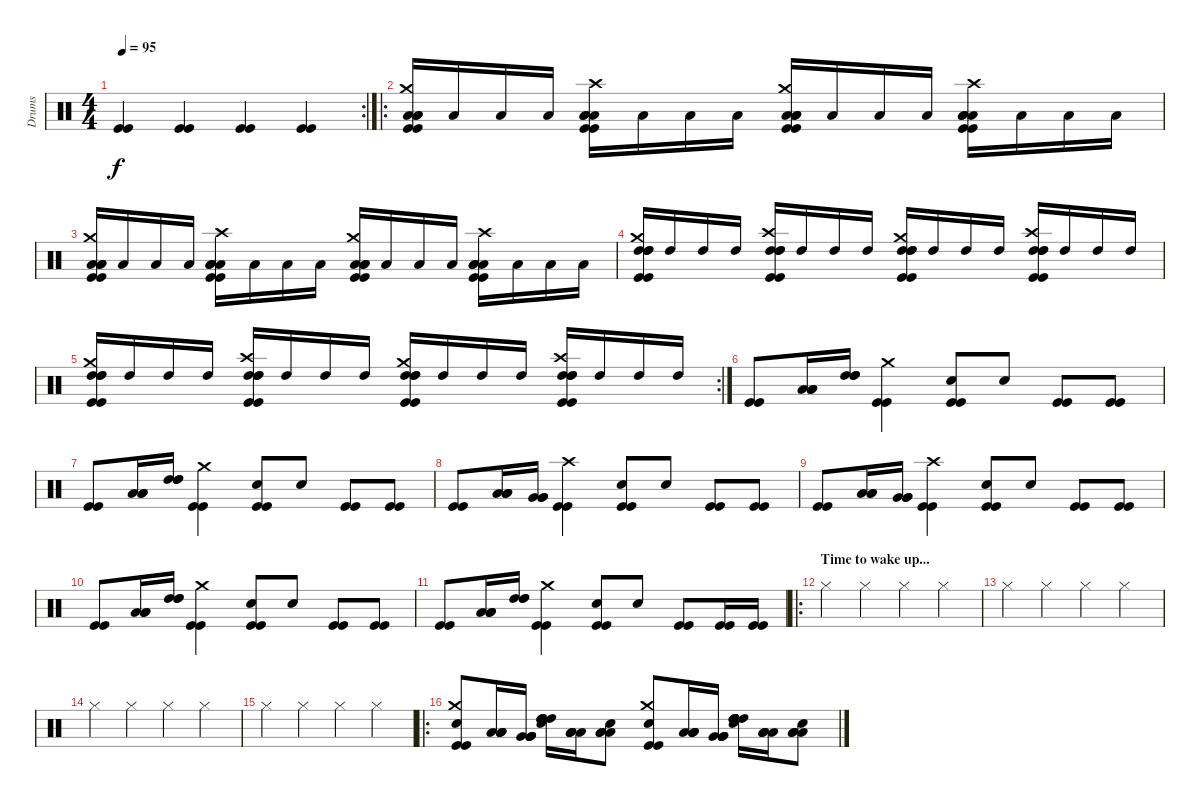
\track ("Drums" "Drums") {instrument percussion}
\staff {score}
\articulation defaults
\rc 2
\ts (4 4)
\tempo 95
\clef neutral
\ks c
("Kick (hit)" "Kick (hit)").4{dy f} ("Kick (hit)" "Kick (hit)").4 ("Kick (hit)" "Kick (hit)").4 ("Kick (hit)" "Kick (hit)").4 |
\ro
("Crash medium (hit)" "Low Tom (hit)" "Low Tom (hit)" "Low Tom (hit)" "Kick (hit)" "Kick (hit)").16 "Low Tom (hit)".16 "Low Tom (hit)".16 "Low Tom (hit)".16 ("Crash high (hit)" "Low Tom (hit)" "Low Tom (hit)" "Low Tom (hit)" "Kick (hit)" "Kick (hit)").16 "Low Tom (hit)".16 "Low Tom (hit)".16 "Low Tom (hit)".16 ("Crash medium (hit)" "Low Tom (hit)" "Low Tom (hit)" "Low Tom (hit)" "Kick (hit)" "Kick (hit)").16 "Low Tom (hit)".16 "Low Tom (hit)".16 "Low Tom (hit)".16 ("Crash high (hit)" "Low Tom (hit)" "Low Tom (hit)" "Low Tom (hit)" "Kick (hit)" "Kick (hit)").16 "Low Tom (hit)".16 "Low Tom (hit)".16 "Low Tom (hit)".16 |
("Crash medium (hit)" "Low Tom (hit)" "Low Tom (hit)" "Low Tom (hit)" "Kick (hit)" "Kick (hit)").16 "Low Tom (hit)".16 "Low Tom (hit)".16 "Low Tom (hit)".16 ("Crash high (hit)" "Low Tom (hit)" "Low Tom (hit)" "Low Tom (hit)" "Kick (hit)" "Kick (hit)").16 "Low Tom (hit)".16 "Low Tom (hit)".16 "Low Tom (hit)".16 ("Crash medium (hit)" "Low Tom (hit)" "Low Tom (hit)" "Low Tom (hit)" "Kick (hit)" "Kick (hit)").16 "Low Tom (hit)".16 "Low Tom (hit)".16 "Low Tom (hit)".16 ("Crash high (hit)" "Low Tom (hit)" "Low Tom (hit)" "Low Tom (hit)" "Kick (hit)" "Kick (hit)").16 "Low Tom (hit)".16 "Low Tom (hit)".16 "Low Tom (hit)".16 |
("Crash medium (hit)" "High Tom (hit)" "High Tom (hit)" "High Tom (hit)" "Kick (hit)" "Kick (hit)").16 "High Tom (hit)".16 "High Tom (hit)".16 "High Tom (hit)".16 ("Crash high (hit)" "High Tom (hit)" "High Tom (hit)" "High Tom (hit)" "Kick (hit)" "Kick (hit)").16 "High Tom (hit)".16 "High Tom (hit)".16 "High Tom (hit)".16 ("Crash medium (hit)" "High Tom (hit)" "High Tom (hit)" "High Tom (hit)" "Kick (hit)" "Kick (hit)").16 "High Tom (hit)".16 "High Tom (hit)".16 "High Tom (hit)".16 ("Crash high (hit)" "High Tom (hit)" "High Tom (hit)" "High Tom (hit)" "Kick (hit)" "Kick (hit)").16 "High Tom (hit)".16 "High Tom (hit)".16 "High Tom (hit)".16 |
\rc 2
("Crash medium (hit)" "High Tom (hit)" "High Tom (hit)" "High Tom (hit)" "Kick (hit)" "Kick (hit)").16 "High Tom (hit)".16 "High Tom (hit)".16 "High Tom (hit)".16 ("Crash high (hit)" "High Tom (hit)" "High Tom (hit)" "High Tom (hit)" "Kick (hit)" "Kick (hit)").16 "High Tom (hit)".16 "High Tom (hit)".16 "High Tom (hit)".16 ("Crash medium (hit)" "High Tom (hit)" "High Tom (hit)" "High Tom (hit)" "Kick (hit)" "Kick (hit)").16 "High Tom (hit)".16 "High Tom (hit)".16 "High Tom (hit)".16 ("Crash high (hit)" "High Tom (hit)" "High Tom (hit)" "High Tom (hit)" "Kick (hit)" "Kick (hit)").16 "High Tom (hit)".16 "High Tom (hit)".16 "High Tom (hit)".16 |
("Kick (hit)" "Kick (hit)").8 ("Low Tom (hit)" "Low Tom (hit)" "Low Tom (hit)").16 ("High Tom (hit)" "High Tom (hit)" "High Tom (hit)").16 ("Crash medium (hit)" "Kick (hit)" "Kick (hit)").4 ("Snare (hit) 2" "Kick (hit)" "Kick (hit)").8 "Snare (hit) 2".8 ("Kick (hit)" "Kick (hit)").8 ("Kick (hit)" "Kick (hit)").8 |
("Kick (hit)" "Kick (hit)").8 ("Low Tom (hit)" "Low Tom (hit)" "Low Tom (hit)").16 ("High Tom (hit)" "High Tom (hit)" "High Tom (hit)").16 ("Crash medium (hit)" "Kick (hit)" "Kick (hit)").4 ("Snare (hit) 2" "Kick (hit)" "Kick (hit)").8 "Snare (hit) 2".8 ("Kick (hit)" "Kick (hit)").8 ("Kick (hit)" "Kick (hit)").8 |
("Kick (hit)" "Kick (hit)").8 ("Low Floor Tom (hit)" "Low Floor Tom (hit)" "Low Floor Tom (hit)").16 ("Very Low Tom (hit)" "Very Low Tom (hit)" "Very Low Tom (hit)").16 ("Crash high (hit)" "Kick (hit)" "Kick (hit)").4 ("Snare (hit) 2" "Kick (hit)" "Kick (hit)").8 "Snare (hit) 2".8 ("Kick (hit)" "Kick (hit)").8 ("Kick (hit)" "Kick (hit)").8 |
("Kick (hit)" "Kick (hit)").8 ("Low Floor Tom (hit)" "Low Floor Tom (hit)" "Low Floor Tom (hit)").16 ("Very Low Tom (hit)" "Very Low Tom (hit)" "Very Low Tom (hit)").16 ("Crash high (hit)" "Kick (hit)" "Kick (hit)").4 ("Snare (hit) 2" "Kick (hit)" "Kick (hit)").8 "Snare (hit) 2".8 ("Kick (hit)" "Kick (hit)").8 ("Kick (hit)" "Kick (hit)").8 |
("Kick (hit)" "Kick (hit)").8 ("Low Tom (hit)" "Low Tom (hit)" "Low Tom (hit)").16 ("High Tom (hit)" "High Tom (hit)" "High Tom (hit)").16 ("Crash medium (hit)" "Kick (hit)" "Kick (hit)").4 ("Snare (hit) 2" "Kick (hit)" "Kick (hit)").8 "Snare (hit) 2".8 ("Kick (hit)" "Kick (hit)").8 ("Kick (hit)" "Kick (hit)").8 |
("Kick (hit)" "Kick (hit)").8 ("Low Tom (hit)" "Low Tom (hit)" "Low Tom (hit)").16 ("High Tom (hit)" "High Tom (hit)" "High Tom (hit)").16 ("Crash medium (hit)" "Kick (hit)" "Kick (hit)").4 ("Snare (hit) 2" "Kick (hit)" "Kick (hit)").8 "Snare (hit) 2".8 ("Kick (hit)" "Kick (hit)").8 ("Kick (hit)" "Kick (hit)").16 ("Kick (hit)" "Kick (hit)").16 |
\ro
\section ("" "Time to wake up...")
"Hi-Hat (closed)".4 "Hi-Hat (closed)".4 "Hi-Hat (closed)".4 "Hi-Hat (closed)".4 |
"Hi-Hat (closed)".4 "Hi-Hat (closed)".4 "Hi-Hat (closed)".4 "Hi-Hat (closed)".4 |
"Hi-Hat (closed)".4 "Hi-Hat (closed)".4 "Hi-Hat (closed)".4 "Hi-Hat (closed)".4 |
"Hi-Hat (closed)".4 "Hi-Hat (closed)".4 "Hi-Hat (closed)".4 "Hi-Hat (closed)".4 |
\ro
("Crash medium (hit)" "Snare (hit) 2" "Kick (hit)" "Kick (hit)").8 ("Low Tom (hit)" "Low Tom (hit)" "Low Tom (hit)" "Low Tom (hit)").16 ("Very Low Tom (hit)" "Very Low Tom (hit)" "Very Low Tom (hit)" "Very Low Tom (hit)").16 ("High Tom (hit)" "High Tom (hit)" "High Tom (hit)" "High Tom (hit)" "Snare (hit) 2").16 ("Low Tom (hit)" "Low Tom (hit)" "Low Tom (hit)" "Low Tom (hit)").16 ("Snare (hit)" "Low Floor Tom (hit)" "Low Floor Tom (hit)" "Low Floor Tom (hit)").8 ("Crash medium (hit)" "Snare (hit) 2" "Kick (hit)" "Kick (hit)").8 ("Low Tom (hit)" "Low Tom (hit)" "Low Tom (hit)" "Low Tom (hit)").16 ("Very Low Tom (hit)" "Very Low Tom (hit)" "Very Low Tom (hit)" "Very Low Tom (hit)").16 ("High Tom (hit)" "High Tom (hit)" "High Tom (hit)" "High Tom (hit)" "Snare (hit) 2").16 ("Low Tom (hit)" "Low Tom (hit)" "Low Tom (hit)" "Low Tom (hit)").16 ("Snare (hit)" "Low Floor Tom (hit)" "Low Floor Tom (hit)" "Low Floor Tom (hit)").8
